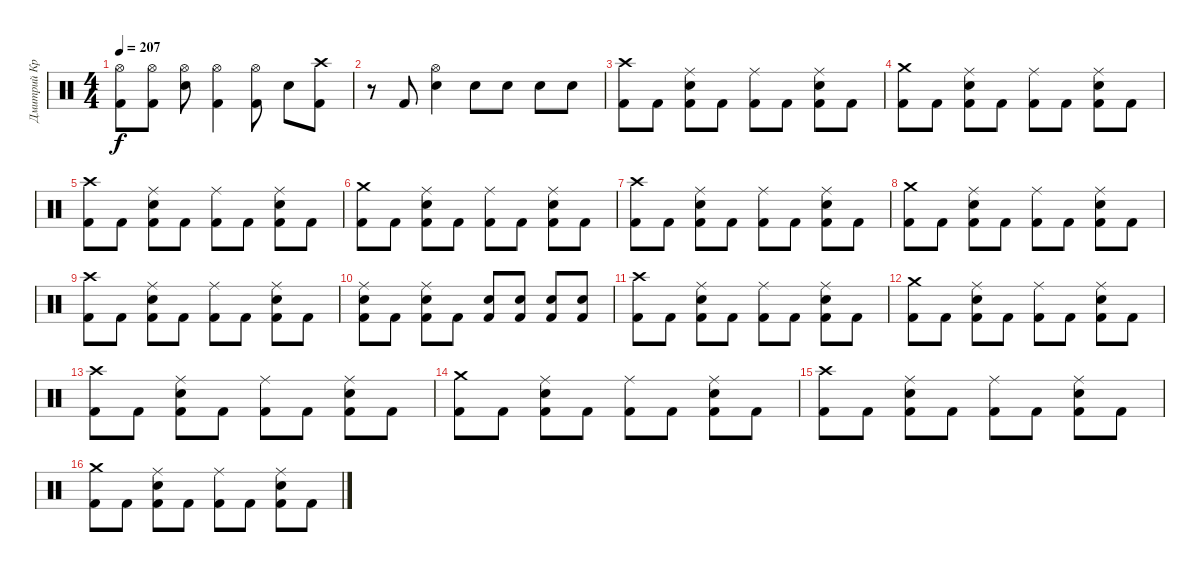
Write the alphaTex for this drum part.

\track ("Дмитрий Кривенков" "Дмитрий Кр") {instrument percussion}
\staff {score}
\articulation defaults
\ts (4 4)
\tempo 207
\clef neutral
\ks c
("Hi-Hat (open)" "Kick (hit) 2").8{dy f} ("Hi-Hat (open)" "Kick (hit) 2").8 ("Hi-Hat (open)" "Electric Snare (hit)").8 ("Hi-Hat (open)" "Kick (hit) 2").4 ("Hi-Hat (open)" "Kick (hit) 2").8 "Electric Snare (hit)".8 ("Crash high (hit)" "Kick (hit) 2").8 |
r.8 "Kick (hit) 2".8 ("Hi-Hat (open)" "Electric Snare (hit)").4 "Electric Snare (hit)".8 "Electric Snare (hit)".8 "Electric Snare (hit)".8 "Electric Snare (hit)".8 |
("Crash high (hit)" "Kick (hit) 2").8 "Kick (hit) 2".8 ("Ride (middle)" "Electric Snare (hit)" "Kick (hit) 2").8 "Kick (hit) 2".8 ("Ride (middle)" "Kick (hit) 2").8 "Kick (hit) 2".8 ("Ride (middle)" "Electric Snare (hit)" "Kick (hit) 2").8 "Kick (hit) 2".8 |
("Crash medium (hit)" "Kick (hit) 2").8 "Kick (hit) 2".8 ("Ride (middle)" "Electric Snare (hit)" "Kick (hit) 2").8 "Kick (hit) 2".8 ("Ride (middle)" "Kick (hit) 2").8 "Kick (hit) 2".8 ("Ride (middle)" "Electric Snare (hit)" "Kick (hit) 2").8 "Kick (hit) 2".8 |
("Crash high (hit)" "Kick (hit) 2").8 "Kick (hit) 2".8 ("Ride (middle)" "Electric Snare (hit)" "Kick (hit) 2").8 "Kick (hit) 2".8 ("Ride (middle)" "Kick (hit) 2").8 "Kick (hit) 2".8 ("Ride (middle)" "Electric Snare (hit)" "Kick (hit) 2").8 "Kick (hit) 2".8 |
("Crash medium (hit)" "Kick (hit) 2").8 "Kick (hit) 2".8 ("Ride (middle)" "Electric Snare (hit)" "Kick (hit) 2").8 "Kick (hit) 2".8 ("Ride (middle)" "Kick (hit) 2").8 "Kick (hit) 2".8 ("Ride (middle)" "Electric Snare (hit)" "Kick (hit) 2").8 "Kick (hit) 2".8 |
("Crash high (hit)" "Kick (hit) 2").8 "Kick (hit) 2".8 ("Ride (middle)" "Electric Snare (hit)" "Kick (hit) 2").8 "Kick (hit) 2".8 ("Ride (middle)" "Kick (hit) 2").8 "Kick (hit) 2".8 ("Ride (middle)" "Electric Snare (hit)" "Kick (hit) 2").8 "Kick (hit) 2".8 |
("Crash medium (hit)" "Kick (hit) 2").8 "Kick (hit) 2".8 ("Ride (middle)" "Electric Snare (hit)" "Kick (hit) 2").8 "Kick (hit) 2".8 ("Ride (middle)" "Kick (hit) 2").8 "Kick (hit) 2".8 ("Ride (middle)" "Electric Snare (hit)" "Kick (hit) 2").8 "Kick (hit) 2".8 |
("Crash high (hit)" "Kick (hit) 2").8 "Kick (hit) 2".8 ("Ride (middle)" "Electric Snare (hit)" "Kick (hit) 2").8 "Kick (hit) 2".8 ("Ride (middle)" "Kick (hit) 2").8 "Kick (hit) 2".8 ("Ride (middle)" "Electric Snare (hit)" "Kick (hit) 2").8 "Kick (hit) 2".8 |
("Ride (middle)" "Electric Snare (hit)" "Kick (hit) 2").8 "Kick (hit) 2".8 ("Ride (middle)" "Electric Snare (hit)" "Kick (hit) 2").8 "Kick (hit) 2".8 ("Electric Snare (hit)" "Kick (hit) 2").8 ("Electric Snare (hit)" "Kick (hit) 2").8 ("Electric Snare (hit)" "Kick (hit) 2").8 ("Electric Snare (hit)" "Kick (hit) 2").8 |
("Crash high (hit)" "Kick (hit) 2").8 "Kick (hit) 2".8 ("Ride (middle)" "Electric Snare (hit)" "Kick (hit) 2").8 "Kick (hit) 2".8 ("Ride (middle)" "Kick (hit) 2").8 "Kick (hit) 2".8 ("Ride (middle)" "Electric Snare (hit)" "Kick (hit) 2").8 "Kick (hit) 2".8 |
("Crash medium (hit)" "Kick (hit) 2").8 "Kick (hit) 2".8 ("Ride (middle)" "Electric Snare (hit)" "Kick (hit) 2").8 "Kick (hit) 2".8 ("Ride (middle)" "Kick (hit) 2").8 "Kick (hit) 2".8 ("Ride (middle)" "Electric Snare (hit)" "Kick (hit) 2").8 "Kick (hit) 2".8 |
("Crash high (hit)" "Kick (hit) 2").8 "Kick (hit) 2".8 ("Ride (middle)" "Electric Snare (hit)" "Kick (hit) 2").8 "Kick (hit) 2".8 ("Ride (middle)" "Kick (hit) 2").8 "Kick (hit) 2".8 ("Ride (middle)" "Electric Snare (hit)" "Kick (hit) 2").8 "Kick (hit) 2".8 |
("Crash medium (hit)" "Kick (hit) 2").8 "Kick (hit) 2".8 ("Ride (middle)" "Electric Snare (hit)" "Kick (hit) 2").8 "Kick (hit) 2".8 ("Ride (middle)" "Kick (hit) 2").8 "Kick (hit) 2".8 ("Ride (middle)" "Electric Snare (hit)" "Kick (hit) 2").8 "Kick (hit) 2".8 |
("Crash high (hit)" "Kick (hit) 2").8 "Kick (hit) 2".8 ("Ride (middle)" "Electric Snare (hit)" "Kick (hit) 2").8 "Kick (hit) 2".8 ("Ride (middle)" "Kick (hit) 2").8 "Kick (hit) 2".8 ("Ride (middle)" "Electric Snare (hit)" "Kick (hit) 2").8 "Kick (hit) 2".8 |
("Crash medium (hit)" "Kick (hit) 2").8 "Kick (hit) 2".8 ("Ride (middle)" "Electric Snare (hit)" "Kick (hit) 2").8 "Kick (hit) 2".8 ("Ride (middle)" "Kick (hit) 2").8 "Kick (hit) 2".8 ("Ride (middle)" "Electric Snare (hit)" "Kick (hit) 2").8 "Kick (hit) 2".8
